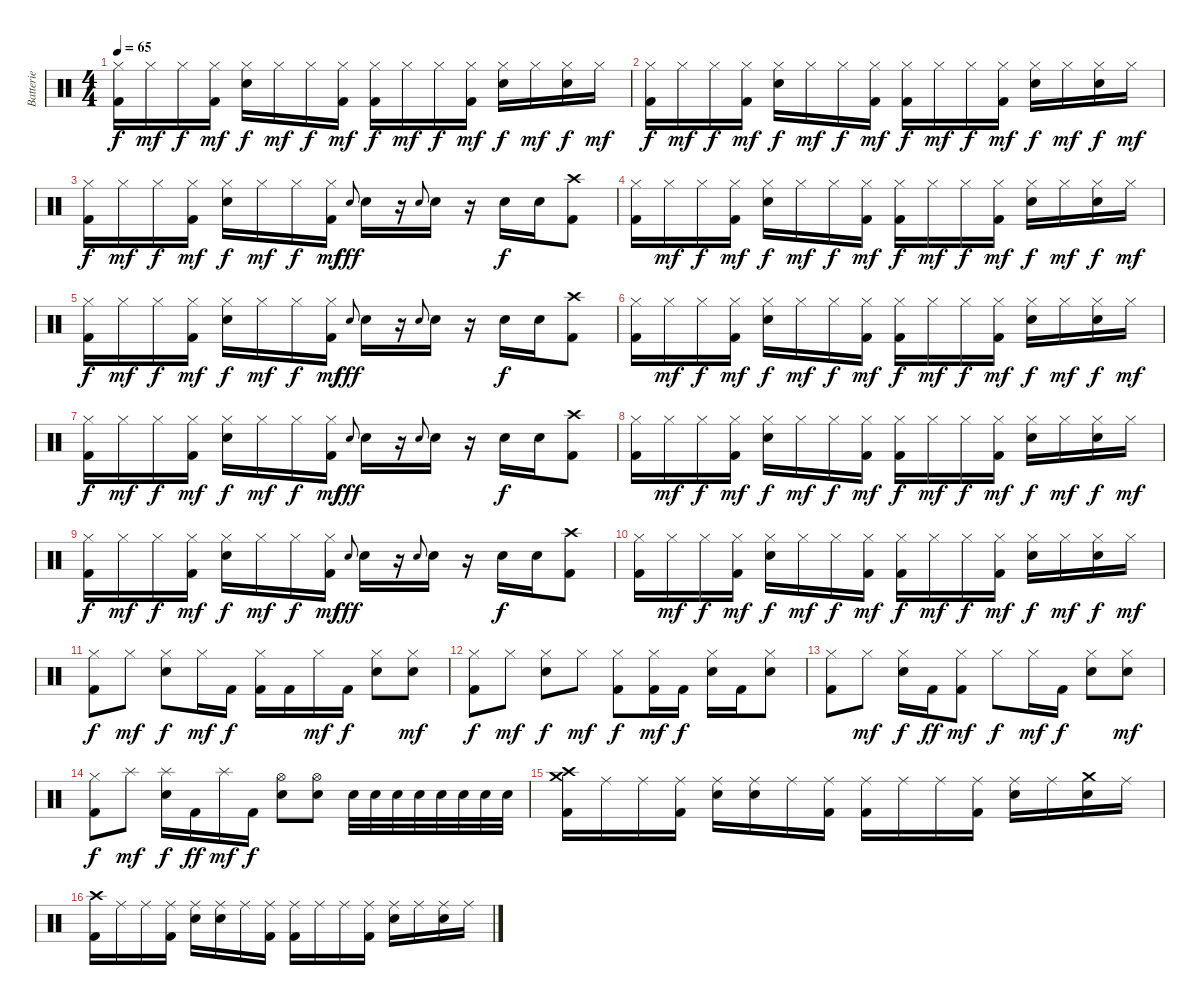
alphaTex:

\track ("Batterie" "Batterie") {instrument percussion}
\staff {score}
\articulation defaults
\ts (4 4)
\tempo 65
\clef neutral
\ks c
("Hi-Hat (closed)" "Kick (hit) 2").16{dy f} "Hi-Hat (closed)".16{dy mf} "Hi-Hat (closed)".16{dy f} ("Hi-Hat (closed)" "Kick (hit) 2").16{dy mf} ("Hi-Hat (closed)" "Electric Snare (hit)").16{dy f} "Hi-Hat (closed)".16{dy mf} "Hi-Hat (closed)".16{dy f} ("Hi-Hat (closed)" "Kick (hit) 2").16{dy mf} ("Hi-Hat (closed)" "Kick (hit) 2").16{dy f} "Hi-Hat (closed)".16{dy mf} "Hi-Hat (closed)".16{dy f} ("Hi-Hat (closed)" "Kick (hit) 2").16{dy mf} ("Hi-Hat (closed)" "Electric Snare (hit)").16{dy f} "Hi-Hat (closed)".16{dy mf} ("Hi-Hat (closed)" "Electric Snare (hit)").16{dy f} "Hi-Hat (closed)".16{dy mf} |
("Hi-Hat (closed)" "Kick (hit) 2").16{dy f} "Hi-Hat (closed)".16{dy mf} "Hi-Hat (closed)".16{dy f} ("Hi-Hat (closed)" "Kick (hit) 2").16{dy mf} ("Hi-Hat (closed)" "Electric Snare (hit)").16{dy f} "Hi-Hat (closed)".16{dy mf} "Hi-Hat (closed)".16{dy f} ("Hi-Hat (closed)" "Kick (hit) 2").16{dy mf} ("Hi-Hat (closed)" "Kick (hit) 2").16{dy f} "Hi-Hat (closed)".16{dy mf} "Hi-Hat (closed)".16{dy f} ("Hi-Hat (closed)" "Kick (hit) 2").16{dy mf} ("Hi-Hat (closed)" "Electric Snare (hit)").16{dy f} "Hi-Hat (closed)".16{dy mf} ("Hi-Hat (closed)" "Electric Snare (hit)").16{dy f} "Hi-Hat (closed)".16{dy mf} |
("Hi-Hat (closed)" "Kick (hit) 2").16{dy f} "Hi-Hat (closed)".16{dy mf} "Hi-Hat (closed)".16{dy f} ("Hi-Hat (closed)" "Kick (hit) 2").16{dy mf} ("Hi-Hat (closed)" "Electric Snare (hit)").16{dy f} "Hi-Hat (closed)".16{dy mf} "Hi-Hat (closed)".16{dy f} ("Hi-Hat (closed)" "Kick (hit) 2").16{dy mf} "Electric Snare (hit)".8{gr onbeat dy fff} "Electric Snare (hit)".16 r.16 "Electric Snare (hit)".8{gr onbeat} "Electric Snare (hit)".16 r.16 "Electric Snare (hit)".16{dy f} "Electric Snare (hit)".16 ("Crash high (hit)" "Kick (hit) 2").8 |
("Hi-Hat (closed)" "Kick (hit) 2").16 "Hi-Hat (closed)".16{dy mf} "Hi-Hat (closed)".16{dy f} ("Hi-Hat (closed)" "Kick (hit) 2").16{dy mf} ("Hi-Hat (closed)" "Electric Snare (hit)").16{dy f} "Hi-Hat (closed)".16{dy mf} "Hi-Hat (closed)".16{dy f} ("Hi-Hat (closed)" "Kick (hit) 2").16{dy mf} ("Hi-Hat (closed)" "Kick (hit) 2").16{dy f} "Hi-Hat (closed)".16{dy mf} "Hi-Hat (closed)".16{dy f} ("Hi-Hat (closed)" "Kick (hit) 2").16{dy mf} ("Hi-Hat (closed)" "Electric Snare (hit)").16{dy f} "Hi-Hat (closed)".16{dy mf} ("Hi-Hat (closed)" "Electric Snare (hit)").16{dy f} "Hi-Hat (closed)".16{dy mf} |
("Hi-Hat (closed)" "Kick (hit) 2").16{dy f} "Hi-Hat (closed)".16{dy mf} "Hi-Hat (closed)".16{dy f} ("Hi-Hat (closed)" "Kick (hit) 2").16{dy mf} ("Hi-Hat (closed)" "Electric Snare (hit)").16{dy f} "Hi-Hat (closed)".16{dy mf} "Hi-Hat (closed)".16{dy f} ("Hi-Hat (closed)" "Kick (hit) 2").16{dy mf} "Electric Snare (hit)".8{gr onbeat dy fff} "Electric Snare (hit)".16 r.16 "Electric Snare (hit)".8{gr onbeat} "Electric Snare (hit)".16 r.16 "Electric Snare (hit)".16{dy f} "Electric Snare (hit)".16 ("Crash high (hit)" "Kick (hit) 2").8 |
("Hi-Hat (closed)" "Kick (hit) 2").16 "Hi-Hat (closed)".16{dy mf} "Hi-Hat (closed)".16{dy f} ("Hi-Hat (closed)" "Kick (hit) 2").16{dy mf} ("Hi-Hat (closed)" "Electric Snare (hit)").16{dy f} "Hi-Hat (closed)".16{dy mf} "Hi-Hat (closed)".16{dy f} ("Hi-Hat (closed)" "Kick (hit) 2").16{dy mf} ("Hi-Hat (closed)" "Kick (hit) 2").16{dy f} "Hi-Hat (closed)".16{dy mf} "Hi-Hat (closed)".16{dy f} ("Hi-Hat (closed)" "Kick (hit) 2").16{dy mf} ("Hi-Hat (closed)" "Electric Snare (hit)").16{dy f} "Hi-Hat (closed)".16{dy mf} ("Hi-Hat (closed)" "Electric Snare (hit)").16{dy f} "Hi-Hat (closed)".16{dy mf} |
("Hi-Hat (closed)" "Kick (hit) 2").16{dy f} "Hi-Hat (closed)".16{dy mf} "Hi-Hat (closed)".16{dy f} ("Hi-Hat (closed)" "Kick (hit) 2").16{dy mf} ("Hi-Hat (closed)" "Electric Snare (hit)").16{dy f} "Hi-Hat (closed)".16{dy mf} "Hi-Hat (closed)".16{dy f} ("Hi-Hat (closed)" "Kick (hit) 2").16{dy mf} "Electric Snare (hit)".8{gr onbeat dy fff} "Electric Snare (hit)".16 r.16 "Electric Snare (hit)".8{gr onbeat} "Electric Snare (hit)".16 r.16 "Electric Snare (hit)".16{dy f} "Electric Snare (hit)".16 ("Crash high (hit)" "Kick (hit) 2").8 |
("Hi-Hat (closed)" "Kick (hit) 2").16 "Hi-Hat (closed)".16{dy mf} "Hi-Hat (closed)".16{dy f} ("Hi-Hat (closed)" "Kick (hit) 2").16{dy mf} ("Hi-Hat (closed)" "Electric Snare (hit)").16{dy f} "Hi-Hat (closed)".16{dy mf} "Hi-Hat (closed)".16{dy f} ("Hi-Hat (closed)" "Kick (hit) 2").16{dy mf} ("Hi-Hat (closed)" "Kick (hit) 2").16{dy f} "Hi-Hat (closed)".16{dy mf} "Hi-Hat (closed)".16{dy f} ("Hi-Hat (closed)" "Kick (hit) 2").16{dy mf} ("Hi-Hat (closed)" "Electric Snare (hit)").16{dy f} "Hi-Hat (closed)".16{dy mf} ("Hi-Hat (closed)" "Electric Snare (hit)").16{dy f} "Hi-Hat (closed)".16{dy mf} |
("Hi-Hat (closed)" "Kick (hit) 2").16{dy f} "Hi-Hat (closed)".16{dy mf} "Hi-Hat (closed)".16{dy f} ("Hi-Hat (closed)" "Kick (hit) 2").16{dy mf} ("Hi-Hat (closed)" "Electric Snare (hit)").16{dy f} "Hi-Hat (closed)".16{dy mf} "Hi-Hat (closed)".16{dy f} ("Hi-Hat (closed)" "Kick (hit) 2").16{dy mf} "Electric Snare (hit)".8{gr onbeat dy fff} "Electric Snare (hit)".16 r.16 "Electric Snare (hit)".8{gr onbeat} "Electric Snare (hit)".16 r.16 "Electric Snare (hit)".16{dy f} "Electric Snare (hit)".16 ("Crash high (hit)" "Kick (hit) 2").8 |
("Hi-Hat (closed)" "Kick (hit) 2").16 "Hi-Hat (closed)".16{dy mf} "Hi-Hat (closed)".16{dy f} ("Hi-Hat (closed)" "Kick (hit) 2").16{dy mf} ("Hi-Hat (closed)" "Electric Snare (hit)").16{dy f} "Hi-Hat (closed)".16{dy mf} "Hi-Hat (closed)".16{dy f} ("Hi-Hat (closed)" "Kick (hit) 2").16{dy mf} ("Hi-Hat (closed)" "Kick (hit) 2").16{dy f} "Hi-Hat (closed)".16{dy mf} "Hi-Hat (closed)".16{dy f} ("Hi-Hat (closed)" "Kick (hit) 2").16{dy mf} ("Hi-Hat (closed)" "Electric Snare (hit)").16{dy f} "Hi-Hat (closed)".16{dy mf} ("Hi-Hat (closed)" "Electric Snare (hit)").16{dy f} "Hi-Hat (closed)".16{dy mf} |
("Hi-Hat (closed)" "Kick (hit) 2").8{dy f} "Hi-Hat (closed)".8{dy mf} ("Hi-Hat (closed)" "Electric Snare (hit)").8{dy f} "Hi-Hat (closed)".16{dy mf} "Kick (hit) 2".16{dy f} ("Hi-Hat (closed)" "Kick (hit) 2").16 "Kick (hit) 2".16 "Hi-Hat (closed)".16{dy mf} "Kick (hit) 2".16{dy f} ("Hi-Hat (closed)" "Electric Snare (hit)").8 ("Hi-Hat (closed)" "Electric Snare (hit)").8{dy mf} |
("Hi-Hat (closed)" "Kick (hit) 2").8{dy f} "Hi-Hat (closed)".8{dy mf} ("Hi-Hat (closed)" "Electric Snare (hit)").8{dy f} "Hi-Hat (closed)".8{dy mf} ("Hi-Hat (closed)" "Kick (hit) 2").8{dy f} ("Hi-Hat (closed)" "Kick (hit) 2").16{dy mf} "Kick (hit) 2".16{dy f} ("Hi-Hat (closed)" "Electric Snare (hit)").16 "Kick (hit) 2".16 ("Hi-Hat (closed)" "Electric Snare (hit)").8 |
("Hi-Hat (closed)" "Kick (hit) 2").8 "Hi-Hat (closed)".8{dy mf} ("Hi-Hat (closed)" "Electric Snare (hit)").16{dy f} "Kick (hit) 2".16{dy ff} ("Hi-Hat (closed)" "Kick (hit) 2").8{dy mf} "Hi-Hat (closed)".8{dy f} "Hi-Hat (closed)".16{dy mf} "Kick (hit) 2".16{dy f} ("Hi-Hat (closed)" "Electric Snare (hit)").8 ("Hi-Hat (closed)" "Electric Snare (hit)").8{dy mf} |
("Hi-Hat (closed)" "Kick (hit) 2").8{dy f} "Splash (hit)".8{dy mf} ("Splash (hit)" "Electric Snare (hit)").16{dy f} "Kick (hit) 2".16{dy ff} "Splash (hit)".16{dy mf} "Kick (hit) 2".16{dy f} ("Hi-Hat (open)" "Electric Snare (hit)").8 ("Hi-Hat (open)" "Electric Snare (hit)").8 "Electric Snare (hit)".32 "Electric Snare (hit)".32 "Electric Snare (hit)".32 "Electric Snare (hit)".32 "Electric Snare (hit)".32 "Electric Snare (hit)".32 "Electric Snare (hit)".32 "Electric Snare (hit)".32 |
("Crash high (hit)" "Crash medium (hit)" "Kick (hit) 2").16 "Ride (middle)".16 "Ride (middle)".16 ("Ride (middle)" "Kick (hit) 2").16 ("Ride (middle)" "Electric Snare (hit)").16 ("Ride (middle)" "Electric Snare (hit)").16 "Ride (middle)".16 ("Ride (middle)" "Kick (hit) 2").16 ("Ride (middle)" "Kick (hit) 2").16 "Ride (middle)".16 "Ride (middle)".16 ("Ride (middle)" "Kick (hit) 2").16 ("Ride (middle)" "Electric Snare (hit)").16 "Ride (middle)".16 ("Crash medium (hit)" "Electric Snare (hit)").16 "Ride (middle)".16 |
("Crash high (hit)" "Kick (hit) 2").16 "Ride (middle)".16 "Ride (middle)".16 ("Ride (middle)" "Kick (hit) 2").16 ("Ride (middle)" "Electric Snare (hit)").16 ("Ride (middle)" "Electric Snare (hit)").16 "Ride (middle)".16 ("Ride (middle)" "Kick (hit) 2").16 ("Ride (middle)" "Kick (hit) 2").16 "Ride (middle)".16 "Ride (middle)".16 ("Ride (middle)" "Kick (hit) 2").16 ("Ride (middle)" "Electric Snare (hit)").16 "Ride (middle)".16 ("Ride (middle)" "Electric Snare (hit)").16 "Ride (middle)".16
